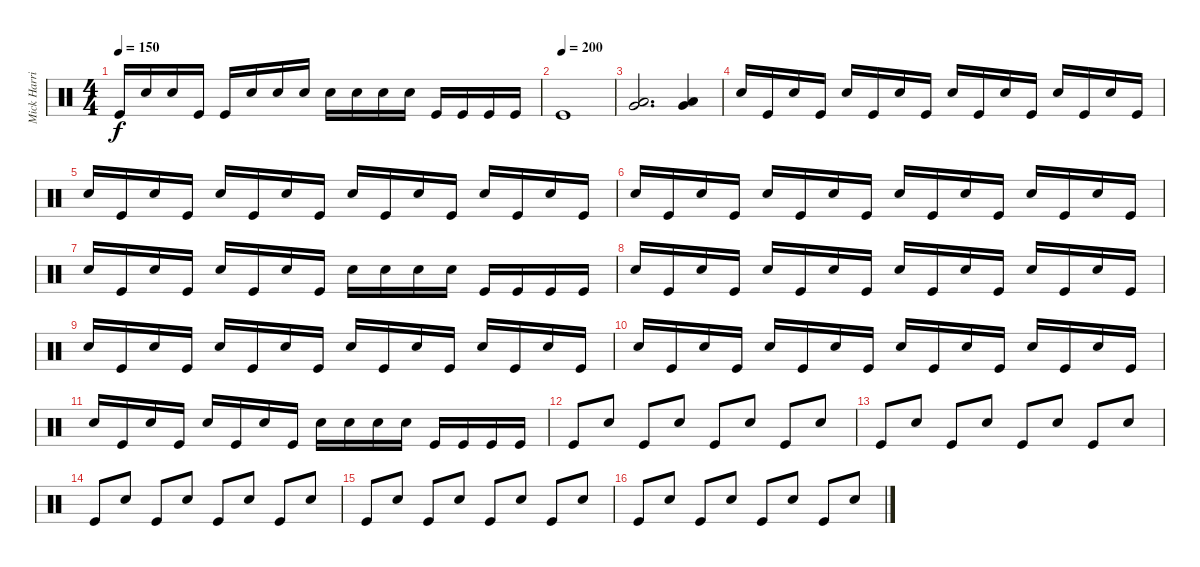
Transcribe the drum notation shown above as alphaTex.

\track ("Mick Harris" "Mick Harri") {instrument percussion}
\staff {score}
\articulation defaults
\ts (4 4)
\tempo 150
\clef neutral
\ks c "Kick (hit)".16{dy f} "Snare (hit) 2".16 "Snare (hit) 2".16 "Kick (hit)".16 "Kick (hit)".16 "Snare (hit) 2".16 "Snare (hit) 2".16 "Snare (hit) 2".16 "Snare (hit) 2".16 "Snare (hit) 2".16 "Snare (hit) 2".16 "Snare (hit) 2".16 "Kick (hit)".16 "Kick (hit)".16 "Kick (hit)".16 "Kick (hit)".16
|
\tempo (200)
"Kick (hit)".1 |
("Very Low Tom (hit)" "Low Floor Tom (hit)").2{d} ("Very Low Tom (hit)" "Low Floor Tom (hit)").4 |
"Snare (hit) 2".16 "Kick (hit)".16 "Snare (hit) 2".16 "Kick (hit)".16 "Snare (hit) 2".16 "Kick (hit)".16 "Snare (hit) 2".16 "Kick (hit)".16 "Snare (hit) 2".16 "Kick (hit)".16 "Snare (hit) 2".16 "Kick (hit)".16 "Snare (hit) 2".16 "Kick (hit)".16 "Snare (hit) 2".16 "Kick (hit)".16 |
"Snare (hit) 2".16 "Kick (hit)".16 "Snare (hit) 2".16 "Kick (hit)".16 "Snare (hit) 2".16 "Kick (hit)".16 "Snare (hit) 2".16 "Kick (hit)".16 "Snare (hit) 2".16 "Kick (hit)".16 "Snare (hit) 2".16 "Kick (hit)".16 "Snare (hit) 2".16 "Kick (hit)".16 "Snare (hit) 2".16 "Kick (hit)".16 |
"Snare (hit) 2".16 "Kick (hit)".16 "Snare (hit) 2".16 "Kick (hit)".16 "Snare (hit) 2".16 "Kick (hit)".16 "Snare (hit) 2".16 "Kick (hit)".16 "Snare (hit) 2".16 "Kick (hit)".16 "Snare (hit) 2".16 "Kick (hit)".16 "Snare (hit) 2".16 "Kick (hit)".16 "Snare (hit) 2".16 "Kick (hit)".16 |
"Snare (hit) 2".16 "Kick (hit)".16 "Snare (hit) 2".16 "Kick (hit)".16 "Snare (hit) 2".16 "Kick (hit)".16 "Snare (hit) 2".16 "Kick (hit)".16 "Snare (hit) 2".16 "Snare (hit) 2".16 "Snare (hit) 2".16 "Snare (hit) 2".16 "Kick (hit)".16 "Kick (hit)".16 "Kick (hit)".16 "Kick (hit)".16 |
"Snare (hit) 2".16 "Kick (hit)".16 "Snare (hit) 2".16 "Kick (hit)".16 "Snare (hit) 2".16 "Kick (hit)".16 "Snare (hit) 2".16 "Kick (hit)".16 "Snare (hit) 2".16 "Kick (hit)".16 "Snare (hit) 2".16 "Kick (hit)".16 "Snare (hit) 2".16 "Kick (hit)".16 "Snare (hit) 2".16 "Kick (hit)".16 |
"Snare (hit) 2".16 "Kick (hit)".16 "Snare (hit) 2".16 "Kick (hit)".16 "Snare (hit) 2".16 "Kick (hit)".16 "Snare (hit) 2".16 "Kick (hit)".16 "Snare (hit) 2".16 "Kick (hit)".16 "Snare (hit) 2".16 "Kick (hit)".16 "Snare (hit) 2".16 "Kick (hit)".16 "Snare (hit) 2".16 "Kick (hit)".16 |
"Snare (hit) 2".16 "Kick (hit)".16 "Snare (hit) 2".16 "Kick (hit)".16 "Snare (hit) 2".16 "Kick (hit)".16 "Snare (hit) 2".16 "Kick (hit)".16 "Snare (hit) 2".16 "Kick (hit)".16 "Snare (hit) 2".16 "Kick (hit)".16 "Snare (hit) 2".16 "Kick (hit)".16 "Snare (hit) 2".16 "Kick (hit)".16 |
"Snare (hit) 2".16 "Kick (hit)".16 "Snare (hit) 2".16 "Kick (hit)".16 "Snare (hit) 2".16 "Kick (hit)".16 "Snare (hit) 2".16 "Kick (hit)".16 "Snare (hit) 2".16 "Snare (hit) 2".16 "Snare (hit) 2".16 "Snare (hit) 2".16 "Kick (hit)".16 "Kick (hit)".16 "Kick (hit)".16 "Kick (hit)".16 |
"Kick (hit)".8 "Snare (hit) 2".8 "Kick (hit)".8 "Snare (hit) 2".8 "Kick (hit)".8 "Snare (hit) 2".8 "Kick (hit)".8 "Snare (hit) 2".8 |
"Kick (hit)".8 "Snare (hit) 2".8 "Kick (hit)".8 "Snare (hit) 2".8 "Kick (hit)".8 "Snare (hit) 2".8 "Kick (hit)".8 "Snare (hit) 2".8 |
"Kick (hit)".8 "Snare (hit) 2".8 "Kick (hit)".8 "Snare (hit) 2".8 "Kick (hit)".8 "Snare (hit) 2".8 "Kick (hit)".8 "Snare (hit) 2".8 |
"Kick (hit)".8 "Snare (hit) 2".8 "Kick (hit)".8 "Snare (hit) 2".8 "Kick (hit)".8 "Snare (hit) 2".8 "Kick (hit)".8 "Snare (hit) 2".8 |
"Kick (hit)".8 "Snare (hit) 2".8 "Kick (hit)".8 "Snare (hit) 2".8 "Kick (hit)".8 "Snare (hit) 2".8 "Kick (hit)".8 "Snare (hit) 2".8
